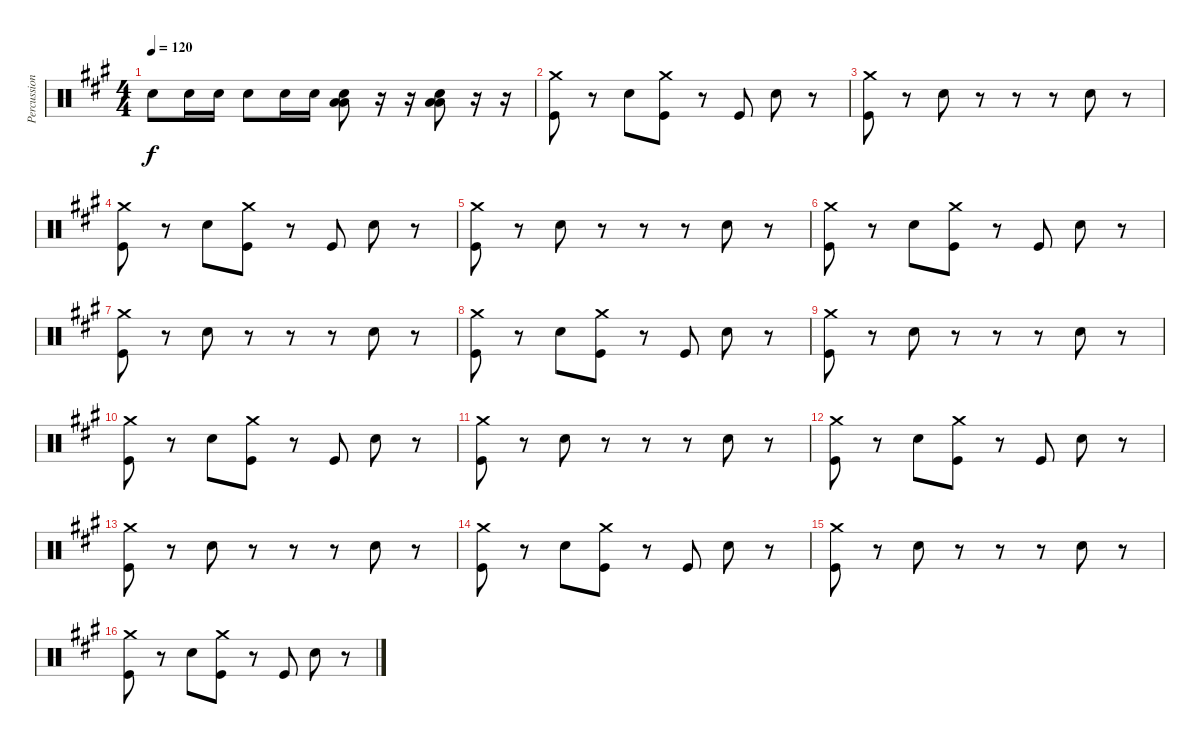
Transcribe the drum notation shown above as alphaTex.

\track ("Percussion" "Percussion") {instrument percussion}
\staff {score}
\articulation defaults
\ts (4 4)
\tempo 120
\clef neutral
\ks a "Snare (hit) 2".8{dy f} "Snare (hit) 2".16 "Snare (hit) 2".16 "Snare (hit) 2".8 "Snare (hit) 2".16 "Snare (hit) 2".16
("Snare (hit) 2" "Low Tom (hit)" "Low Floor Tom (hit)").8 r.16 r.16 ("Snare (hit) 2" "Low Tom (hit)" "Low Floor Tom (hit)").8 r.16 r.16 |
("Crash medium (hit)" "Kick (hit)").8 r.8 "Snare (hit) 2".8 ("Crash medium (hit)" "Kick (hit)").8 r.8 "Kick (hit)".8 "Snare (hit) 2".8 r.8 |
("Crash medium (hit)" "Kick (hit)").8 r.8 "Snare (hit) 2".8 r.8 r.8 r.8 "Snare (hit) 2".8 r.8 |
("Crash medium (hit)" "Kick (hit)").8 r.8 "Snare (hit) 2".8 ("Crash medium (hit)" "Kick (hit)").8 r.8 "Kick (hit)".8 "Snare (hit) 2".8 r.8 |
("Crash medium (hit)" "Kick (hit)").8 r.8 "Snare (hit) 2".8 r.8 r.8 r.8 "Snare (hit) 2".8 r.8 |
("Crash medium (hit)" "Kick (hit)").8 r.8 "Snare (hit) 2".8 ("Crash medium (hit)" "Kick (hit)").8 r.8 "Kick (hit)".8 "Snare (hit) 2".8 r.8 |
("Crash medium (hit)" "Kick (hit)").8 r.8 "Snare (hit) 2".8 r.8 r.8 r.8 "Snare (hit) 2".8 r.8 |
("Crash medium (hit)" "Kick (hit)").8 r.8 "Snare (hit) 2".8 ("Crash medium (hit)" "Kick (hit)").8 r.8 "Kick (hit)".8 "Snare (hit) 2".8 r.8 |
("Crash medium (hit)" "Kick (hit)").8 r.8 "Snare (hit) 2".8 r.8 r.8 r.8 "Snare (hit) 2".8 r.8 |
("Crash medium (hit)" "Kick (hit)").8 r.8 "Snare (hit) 2".8 ("Crash medium (hit)" "Kick (hit)").8 r.8 "Kick (hit)".8 "Snare (hit) 2".8 r.8 |
("Crash medium (hit)" "Kick (hit)").8 r.8 "Snare (hit) 2".8 r.8 r.8 r.8 "Snare (hit) 2".8 r.8 |
("Crash medium (hit)" "Kick (hit)").8 r.8 "Snare (hit) 2".8 ("Crash medium (hit)" "Kick (hit)").8 r.8 "Kick (hit)".8 "Snare (hit) 2".8 r.8 |
("Crash medium (hit)" "Kick (hit)").8 r.8 "Snare (hit) 2".8 r.8 r.8 r.8 "Snare (hit) 2".8 r.8 |
("Crash medium (hit)" "Kick (hit)").8 r.8 "Snare (hit) 2".8 ("Crash medium (hit)" "Kick (hit)").8 r.8 "Kick (hit)".8 "Snare (hit) 2".8 r.8 |
("Crash medium (hit)" "Kick (hit)").8 r.8 "Snare (hit) 2".8 r.8 r.8 r.8 "Snare (hit) 2".8 r.8 |
("Crash medium (hit)" "Kick (hit)").8 r.8 "Snare (hit) 2".8 ("Crash medium (hit)" "Kick (hit)").8 r.8 "Kick (hit)".8 "Snare (hit) 2".8 r.8
